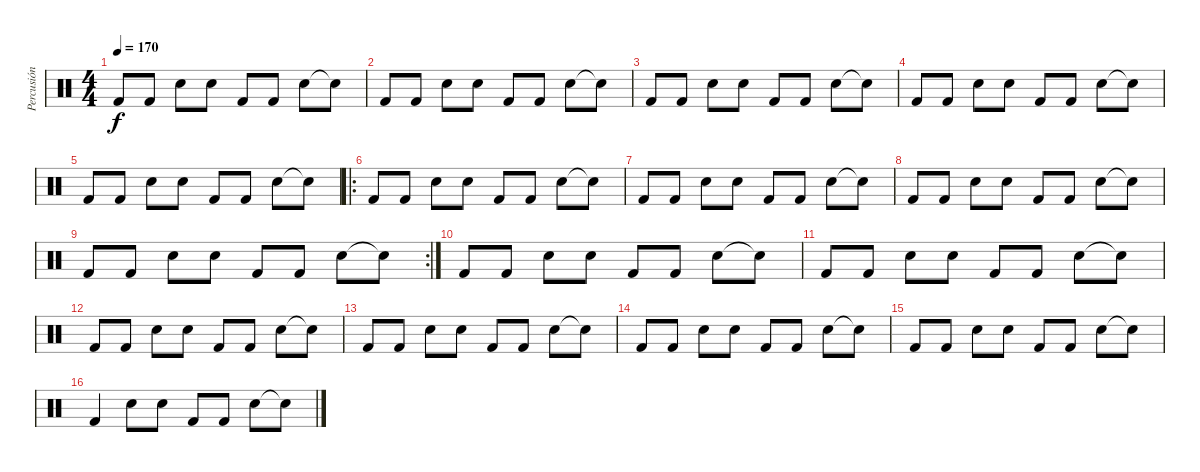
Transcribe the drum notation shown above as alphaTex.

\track ("Percusión" "Percusión") {instrument percussion}
\staff {score}
\articulation defaults
\ts (4 4)
\tempo 170
\clef neutral
\ks c "Kick (hit) 2".8{dy f} "Kick (hit) 2".8 "Electric Snare (hit)".8 "Electric Snare (hit)".8 "Kick (hit) 2".8 "Kick (hit) 2".8 "Electric Snare (hit)".8 "Snare (hit)"{t}.8
|
"Kick (hit) 2".8 "Kick (hit) 2".8 "Electric Snare (hit)".8 "Electric Snare (hit)".8 "Kick (hit) 2".8 "Kick (hit) 2".8 "Electric Snare (hit)".8 "Snare (hit)"{t}.8 |
"Kick (hit) 2".8 "Kick (hit) 2".8 "Electric Snare (hit)".8 "Electric Snare (hit)".8 "Kick (hit) 2".8 "Kick (hit) 2".8 "Electric Snare (hit)".8 "Snare (hit)"{t}.8 |
"Kick (hit) 2".8 "Kick (hit) 2".8 "Electric Snare (hit)".8 "Electric Snare (hit)".8 "Kick (hit) 2".8 "Kick (hit) 2".8 "Electric Snare (hit)".8 "Snare (hit)"{t}.8 |
"Kick (hit) 2".8 "Kick (hit) 2".8 "Electric Snare (hit)".8 "Electric Snare (hit)".8 "Kick (hit) 2".8 "Kick (hit) 2".8 "Electric Snare (hit)".8 "Snare (hit)"{t}.8 |
\ro "Kick (hit) 2".8 "Kick (hit) 2".8 "Electric Snare (hit)".8 "Electric Snare (hit)".8 "Kick (hit) 2".8 "Kick (hit) 2".8 "Electric Snare (hit)".8 "Snare (hit)"{t}.8
|
"Kick (hit) 2".8 "Kick (hit) 2".8 "Electric Snare (hit)".8 "Electric Snare (hit)".8 "Kick (hit) 2".8 "Kick (hit) 2".8 "Electric Snare (hit)".8 "Snare (hit)"{t}.8 |
"Kick (hit) 2".8 "Kick (hit) 2".8 "Electric Snare (hit)".8 "Electric Snare (hit)".8 "Kick (hit) 2".8 "Kick (hit) 2".8 "Electric Snare (hit)".8 "Snare (hit)"{t}.8 |
\rc 2 "Kick (hit) 2".8 "Kick (hit) 2".8 "Electric Snare (hit)".8 "Electric Snare (hit)".8 "Kick (hit) 2".8 "Kick (hit) 2".8 "Electric Snare (hit)".8 "Snare (hit)"{t}.8
|
"Kick (hit) 2".8 "Kick (hit) 2".8 "Electric Snare (hit)".8 "Electric Snare (hit)".8 "Kick (hit) 2".8 "Kick (hit) 2".8 "Electric Snare (hit)".8 "Snare (hit)"{t}.8 |
"Kick (hit) 2".8 "Kick (hit) 2".8 "Electric Snare (hit)".8 "Electric Snare (hit)".8 "Kick (hit) 2".8 "Kick (hit) 2".8 "Electric Snare (hit)".8 "Snare (hit)"{t}.8 |
"Kick (hit) 2".8 "Kick (hit) 2".8 "Electric Snare (hit)".8 "Electric Snare (hit)".8 "Kick (hit) 2".8 "Kick (hit) 2".8 "Electric Snare (hit)".8 "Snare (hit)"{t}.8 |
"Kick (hit) 2".8 "Kick (hit) 2".8 "Electric Snare (hit)".8 "Electric Snare (hit)".8 "Kick (hit) 2".8 "Kick (hit) 2".8 "Electric Snare (hit)".8 "Snare (hit)"{t}.8 |
"Kick (hit) 2".8 "Kick (hit) 2".8 "Electric Snare (hit)".8 "Electric Snare (hit)".8 "Kick (hit) 2".8 "Kick (hit) 2".8 "Electric Snare (hit)".8 "Snare (hit)"{t}.8 |
"Kick (hit) 2".8 "Kick (hit) 2".8 "Electric Snare (hit)".8 "Electric Snare (hit)".8 "Kick (hit) 2".8 "Kick (hit) 2".8 "Electric Snare (hit)".8 "Snare (hit)"{t}.8 |
"Kick (hit) 2".4 "Electric Snare (hit)".8 "Electric Snare (hit)".8 "Kick (hit) 2".8 "Kick (hit) 2".8 "Electric Snare (hit)".8 "Electric Snare (hit)"{t}.8
